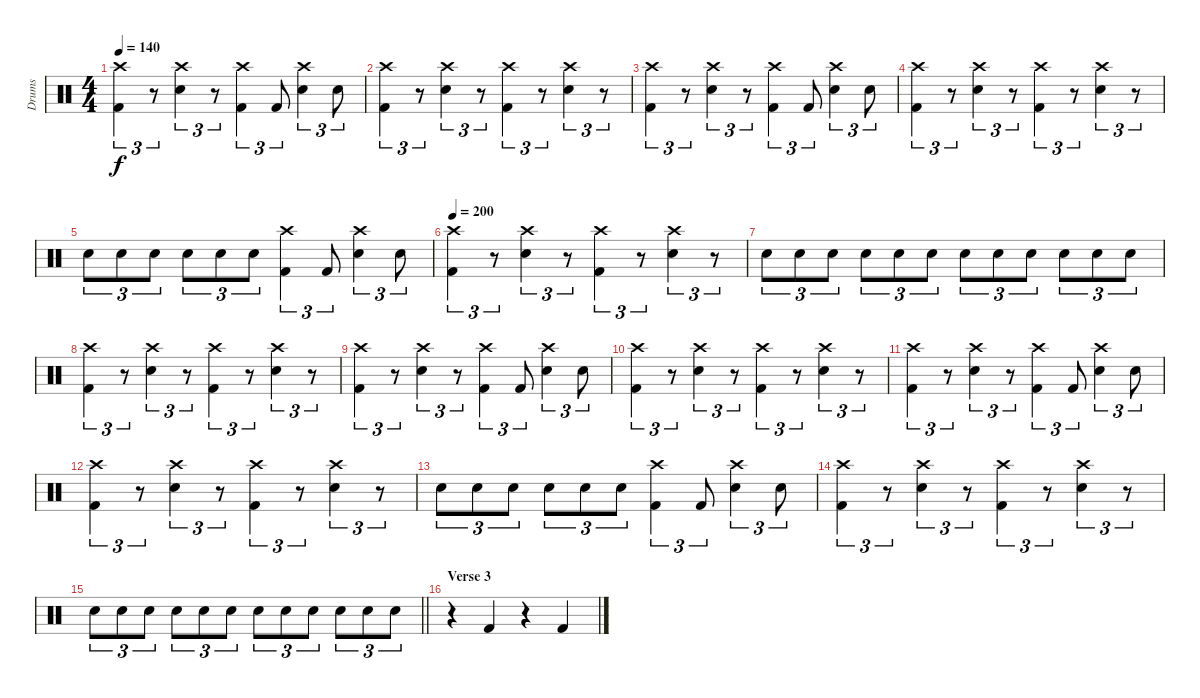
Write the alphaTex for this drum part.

\track ("Drums" "Drums") {instrument percussion}
\staff {score}
\articulation defaults
\ts (4 4)
\tempo 140
\clef neutral
\ks c
("Crash high (hit)" "Kick (hit) 2").4{tu (3 2) dy f} r.8{tu (3 2)} ("Crash high (hit)" "Snare (hit) 2").4{tu (3 2)} r.8{tu (3 2)} ("Crash high (hit)" "Kick (hit) 2").4{tu (3 2)} "Kick (hit) 2".8{tu (3 2)} ("Crash high (hit)" "Snare (hit) 2").4{tu (3 2)} "Snare (hit) 2".8{tu (3 2)} |
("Crash high (hit)" "Kick (hit) 2").4{tu (3 2)} r.8{tu (3 2)} ("Crash high (hit)" "Snare (hit) 2").4{tu (3 2)} r.8{tu (3 2)} ("Crash high (hit)" "Kick (hit) 2").4{tu (3 2)} r.8{tu (3 2)} ("Crash high (hit)" "Snare (hit) 2").4{tu (3 2)} r.8{tu (3 2)} |
("Crash high (hit)" "Kick (hit) 2").4{tu (3 2)} r.8{tu (3 2)} ("Crash high (hit)" "Snare (hit) 2").4{tu (3 2)} r.8{tu (3 2)} ("Crash high (hit)" "Kick (hit) 2").4{tu (3 2)} "Kick (hit) 2".8{tu (3 2)} ("Crash high (hit)" "Snare (hit) 2").4{tu (3 2)} "Snare (hit) 2".8{tu (3 2)} |
("Crash high (hit)" "Kick (hit) 2").4{tu (3 2)} r.8{tu (3 2)} ("Crash high (hit)" "Snare (hit) 2").4{tu (3 2)} r.8{tu (3 2)} ("Crash high (hit)" "Kick (hit) 2").4{tu (3 2)} r.8{tu (3 2)} ("Crash high (hit)" "Snare (hit) 2").4{tu (3 2)} r.8{tu (3 2)} |
"Snare (hit) 2".8{tu (3 2)} "Snare (hit) 2".8{tu (3 2)} "Snare (hit) 2".8{tu (3 2)} "Snare (hit) 2".8{tu (3 2)} "Snare (hit) 2".8{tu (3 2)} "Snare (hit) 2".8{tu (3 2)} ("Crash high (hit)" "Kick (hit) 2").4{tu (3 2)} "Kick (hit) 2".8{tu (3 2)} ("Crash high (hit)" "Snare (hit) 2").4{tu (3 2)} "Snare (hit) 2".8{tu (3 2)} |
\tempo 200
("Crash high (hit)" "Kick (hit) 2").4{tu (3 2)} r.8{tu (3 2)} ("Crash high (hit)" "Snare (hit) 2").4{tu (3 2)} r.8{tu (3 2)} ("Crash high (hit)" "Kick (hit) 2").4{tu (3 2)} r.8{tu (3 2)} ("Crash high (hit)" "Snare (hit) 2").4{tu (3 2)} r.8{tu (3 2)} |
"Snare (hit) 2".8{tu (3 2)} "Snare (hit) 2".8{tu (3 2)} "Snare (hit) 2".8{tu (3 2)} "Snare (hit) 2".8{tu (3 2)} "Snare (hit) 2".8{tu (3 2)} "Snare (hit) 2".8{tu (3 2)} "Snare (hit) 2".8{tu (3 2)} "Snare (hit) 2".8{tu (3 2)} "Snare (hit) 2".8{tu (3 2)} "Snare (hit) 2".8{tu (3 2)} "Snare (hit) 2".8{tu (3 2)} "Snare (hit) 2".8{tu (3 2)} |
("Crash high (hit)" "Kick (hit) 2").4{tu (3 2)} r.8{tu (3 2)} ("Crash high (hit)" "Snare (hit) 2").4{tu (3 2)} r.8{tu (3 2)} ("Crash high (hit)" "Kick (hit) 2").4{tu (3 2)} r.8{tu (3 2)} ("Crash high (hit)" "Snare (hit) 2").4{tu (3 2)} r.8{tu (3 2)} |
("Crash high (hit)" "Kick (hit) 2").4{tu (3 2)} r.8{tu (3 2)} ("Crash high (hit)" "Snare (hit) 2").4{tu (3 2)} r.8{tu (3 2)} ("Crash high (hit)" "Kick (hit) 2").4{tu (3 2)} "Kick (hit) 2".8{tu (3 2)} ("Crash high (hit)" "Snare (hit) 2").4{tu (3 2)} "Snare (hit) 2".8{tu (3 2)} |
("Crash high (hit)" "Kick (hit) 2").4{tu (3 2)} r.8{tu (3 2)} ("Crash high (hit)" "Snare (hit) 2").4{tu (3 2)} r.8{tu (3 2)} ("Crash high (hit)" "Kick (hit) 2").4{tu (3 2)} r.8{tu (3 2)} ("Crash high (hit)" "Snare (hit) 2").4{tu (3 2)} r.8{tu (3 2)} |
("Crash high (hit)" "Kick (hit) 2").4{tu (3 2)} r.8{tu (3 2)} ("Crash high (hit)" "Snare (hit) 2").4{tu (3 2)} r.8{tu (3 2)} ("Crash high (hit)" "Kick (hit) 2").4{tu (3 2)} "Kick (hit) 2".8{tu (3 2)} ("Crash high (hit)" "Snare (hit) 2").4{tu (3 2)} "Snare (hit) 2".8{tu (3 2)} |
("Crash high (hit)" "Kick (hit) 2").4{tu (3 2)} r.8{tu (3 2)} ("Crash high (hit)" "Snare (hit) 2").4{tu (3 2)} r.8{tu (3 2)} ("Crash high (hit)" "Kick (hit) 2").4{tu (3 2)} r.8{tu (3 2)} ("Crash high (hit)" "Snare (hit) 2").4{tu (3 2)} r.8{tu (3 2)} |
"Snare (hit) 2".8{tu (3 2)} "Snare (hit) 2".8{tu (3 2)} "Snare (hit) 2".8{tu (3 2)} "Snare (hit) 2".8{tu (3 2)} "Snare (hit) 2".8{tu (3 2)} "Snare (hit) 2".8{tu (3 2)} ("Crash high (hit)" "Kick (hit) 2").4{tu (3 2)} "Kick (hit) 2".8{tu (3 2)} ("Crash high (hit)" "Snare (hit) 2").4{tu (3 2)} "Snare (hit) 2".8{tu (3 2)} |
("Crash high (hit)" "Kick (hit) 2").4{tu (3 2)} r.8{tu (3 2)} ("Crash high (hit)" "Snare (hit) 2").4{tu (3 2)} r.8{tu (3 2)} ("Crash high (hit)" "Kick (hit) 2").4{tu (3 2)} r.8{tu (3 2)} ("Crash high (hit)" "Snare (hit) 2").4{tu (3 2)} r.8{tu (3 2)} |
\barLineRight lightlight "Snare (hit) 2".8{tu (3 2)} "Snare (hit) 2".8{tu (3 2)} "Snare (hit) 2".8{tu (3 2)} "Snare (hit) 2".8{tu (3 2)} "Snare (hit) 2".8{tu (3 2)} "Snare (hit) 2".8{tu (3 2)} "Snare (hit) 2".8{tu (3 2)} "Snare (hit) 2".8{tu (3 2)} "Snare (hit) 2".8{tu (3 2)} "Snare (hit) 2".8{tu (3 2)} "Snare (hit) 2".8{tu (3 2)} "Snare (hit) 2".8{tu (3 2)}
|
\section ("" "Verse 3")
r.4 "Kick (hit) 2".4 r.4 "Kick (hit) 2".4
